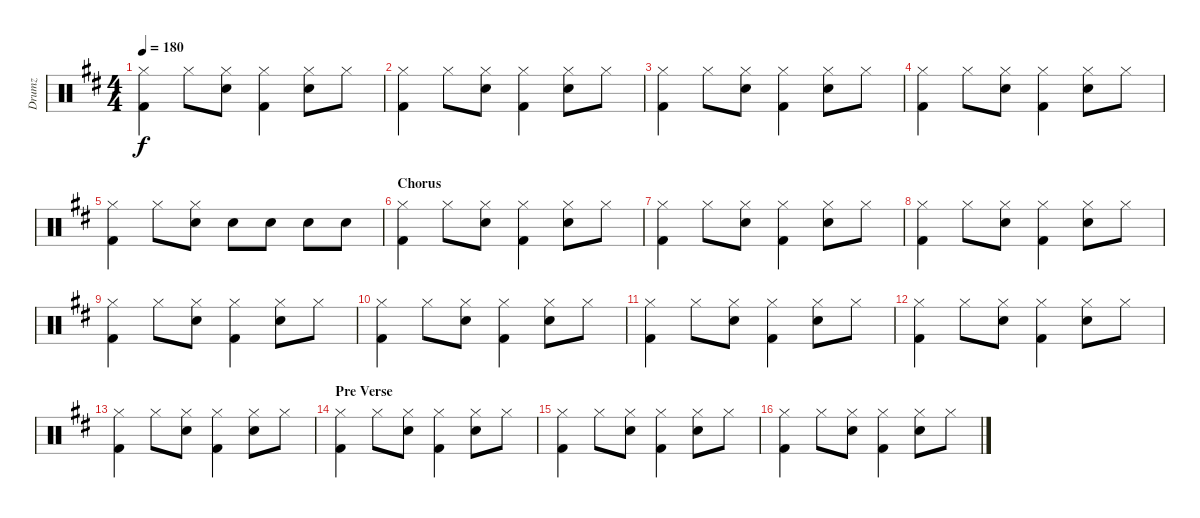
\track ("Drumz" "Drumz") {instrument percussion}
\staff {score}
\articulation defaults
\ts (4 4)
\tempo 180
\clef neutral
\ks d
("Hi-Hat (closed)" "Kick (hit) 2").4{dy f} "Hi-Hat (closed)".8 ("Hi-Hat (closed)" "Snare (hit) 2").8 ("Hi-Hat (closed)" "Kick (hit) 2").4 ("Hi-Hat (closed)" "Snare (hit) 2").8 "Hi-Hat (closed)".8 |
("Hi-Hat (closed)" "Kick (hit) 2").4 "Hi-Hat (closed)".8 ("Hi-Hat (closed)" "Snare (hit) 2").8 ("Hi-Hat (closed)" "Kick (hit) 2").4 ("Hi-Hat (closed)" "Snare (hit) 2").8 "Hi-Hat (closed)".8 |
("Hi-Hat (closed)" "Kick (hit) 2").4 "Hi-Hat (closed)".8 ("Hi-Hat (closed)" "Snare (hit) 2").8 ("Hi-Hat (closed)" "Kick (hit) 2").4 ("Hi-Hat (closed)" "Snare (hit) 2").8 "Hi-Hat (closed)".8 |
("Hi-Hat (closed)" "Kick (hit) 2").4 "Hi-Hat (closed)".8 ("Hi-Hat (closed)" "Snare (hit) 2").8 ("Hi-Hat (closed)" "Kick (hit) 2").4 ("Hi-Hat (closed)" "Snare (hit) 2").8 "Hi-Hat (closed)".8 |
("Hi-Hat (closed)" "Kick (hit) 2").4 "Hi-Hat (closed)".8 ("Hi-Hat (closed)" "Snare (hit) 2").8 "Snare (hit) 2".8 "Snare (hit) 2".8 "Snare (hit) 2".8 "Snare (hit) 2".8 |
\section ("" "Chorus")
("Hi-Hat (closed)" "Kick (hit) 2").4 "Hi-Hat (closed)".8 ("Hi-Hat (closed)" "Snare (hit) 2").8 ("Hi-Hat (closed)" "Kick (hit) 2").4 ("Hi-Hat (closed)" "Snare (hit) 2").8 "Hi-Hat (closed)".8 |
("Hi-Hat (closed)" "Kick (hit) 2").4 "Hi-Hat (closed)".8 ("Hi-Hat (closed)" "Snare (hit) 2").8 ("Hi-Hat (closed)" "Kick (hit) 2").4 ("Hi-Hat (closed)" "Snare (hit) 2").8 "Hi-Hat (closed)".8 |
("Hi-Hat (closed)" "Kick (hit) 2").4 "Hi-Hat (closed)".8 ("Hi-Hat (closed)" "Snare (hit) 2").8 ("Hi-Hat (closed)" "Kick (hit) 2").4 ("Hi-Hat (closed)" "Snare (hit) 2").8 "Hi-Hat (closed)".8 |
("Hi-Hat (closed)" "Kick (hit) 2").4 "Hi-Hat (closed)".8 ("Hi-Hat (closed)" "Snare (hit) 2").8 ("Hi-Hat (closed)" "Kick (hit) 2").4 ("Hi-Hat (closed)" "Snare (hit) 2").8 "Hi-Hat (closed)".8 |
("Hi-Hat (closed)" "Kick (hit) 2").4 "Hi-Hat (closed)".8 ("Hi-Hat (closed)" "Snare (hit) 2").8 ("Hi-Hat (closed)" "Kick (hit) 2").4 ("Hi-Hat (closed)" "Snare (hit) 2").8 "Hi-Hat (closed)".8 |
("Hi-Hat (closed)" "Kick (hit) 2").4 "Hi-Hat (closed)".8 ("Hi-Hat (closed)" "Snare (hit) 2").8 ("Hi-Hat (closed)" "Kick (hit) 2").4 ("Hi-Hat (closed)" "Snare (hit) 2").8 "Hi-Hat (closed)".8 |
("Hi-Hat (closed)" "Kick (hit) 2").4 "Hi-Hat (closed)".8 ("Hi-Hat (closed)" "Snare (hit) 2").8 ("Hi-Hat (closed)" "Kick (hit) 2").4 ("Hi-Hat (closed)" "Snare (hit) 2").8 "Hi-Hat (closed)".8 |
("Hi-Hat (closed)" "Kick (hit) 2").4 "Hi-Hat (closed)".8 ("Hi-Hat (closed)" "Snare (hit) 2").8 ("Hi-Hat (closed)" "Kick (hit) 2").4 ("Hi-Hat (closed)" "Snare (hit) 2").8 "Hi-Hat (closed)".8 |
\section ("" "Pre Verse")
("Hi-Hat (closed)" "Kick (hit) 2").4 "Hi-Hat (closed)".8 ("Hi-Hat (closed)" "Snare (hit) 2").8 ("Hi-Hat (closed)" "Kick (hit) 2").4 ("Hi-Hat (closed)" "Snare (hit) 2").8 "Hi-Hat (closed)".8 |
("Hi-Hat (closed)" "Kick (hit) 2").4 "Hi-Hat (closed)".8 ("Hi-Hat (closed)" "Snare (hit) 2").8 ("Hi-Hat (closed)" "Kick (hit) 2").4 ("Hi-Hat (closed)" "Snare (hit) 2").8 "Hi-Hat (closed)".8 |
("Hi-Hat (closed)" "Kick (hit) 2").4 "Hi-Hat (closed)".8 ("Hi-Hat (closed)" "Snare (hit) 2").8 ("Hi-Hat (closed)" "Kick (hit) 2").4 ("Hi-Hat (closed)" "Snare (hit) 2").8 "Hi-Hat (closed)".8
